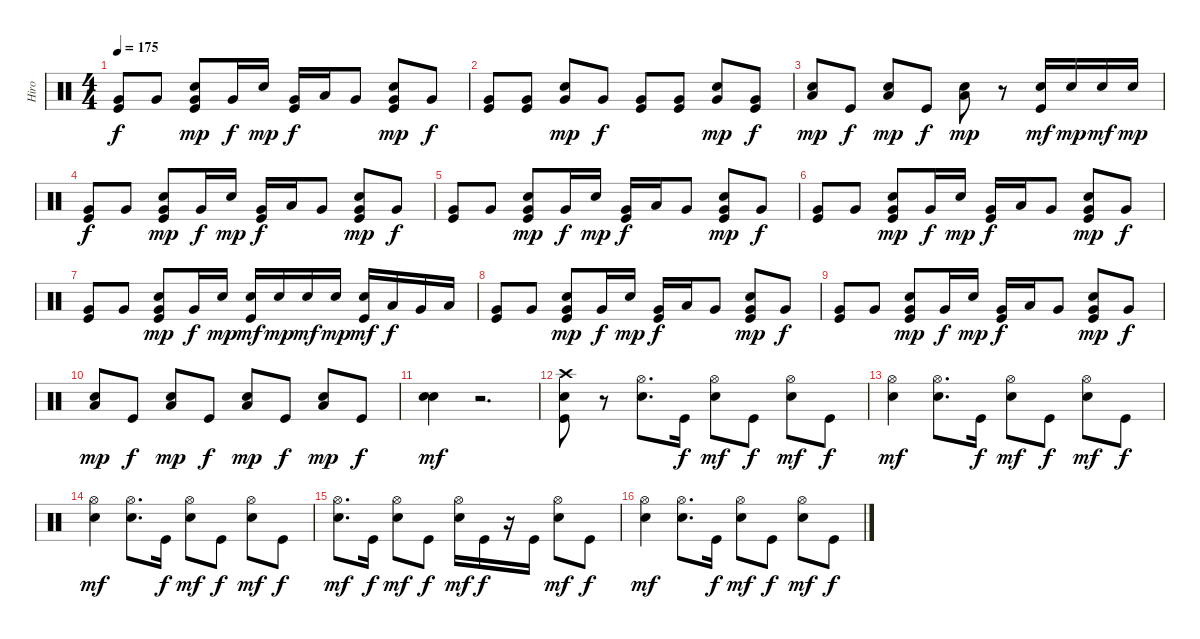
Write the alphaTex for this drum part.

\track ("Hiro" "Hiro") {instrument percussion}
\staff {score}
\articulation defaults
\ts (4 4)
\tempo 175
\clef neutral
\ks c
("Kick (hit)" "Very Low Tom (hit)").8{dy f} "Very Low Tom (hit)".8 ("Very Low Tom (hit)" "Electric Snare (hit)" "Kick (hit)").8{dy mp} "Very Low Tom (hit)".16{dy f} "Electric Snare (hit)".16{dy mp} ("Very Low Tom (hit)" "Kick (hit)").16{dy f} "Low Tom (hit)".16 "Very Low Tom (hit)".8 ("Very Low Tom (hit)" "Electric Snare (hit)" "Kick (hit)").8{dy mp} "Very Low Tom (hit)".8{dy f} |
("Kick (hit)" "Very Low Tom (hit)").8 ("Kick (hit)" "Very Low Tom (hit)").8 ("Very Low Tom (hit)" "Electric Snare (hit)").8{dy mp} "Very Low Tom (hit)".8{dy f} ("Kick (hit)" "Very Low Tom (hit)").8 ("Kick (hit)" "Very Low Tom (hit)").8 ("Very Low Tom (hit)" "Electric Snare (hit)").8{dy mp} ("Kick (hit)" "Very Low Tom (hit)").8{dy f} |
("Low Floor Tom (hit)" "Electric Snare (hit)").8{dy mp} "Kick (hit)".8{dy f} ("Low Floor Tom (hit)" "Electric Snare (hit)").8{dy mp} "Kick (hit)".8{dy f} ("Low Floor Tom (hit)" "Electric Snare (hit)").8{dy mp} r.8 ("Electric Snare (hit)" "Kick (hit)").16{dy mf} "Electric Snare (hit)".16{dy mp} "Electric Snare (hit)".16{dy mf} "Electric Snare (hit)".16{dy mp} |
("Kick (hit)" "Very Low Tom (hit)").8{dy f} "Very Low Tom (hit)".8 ("Very Low Tom (hit)" "Electric Snare (hit)" "Kick (hit)").8{dy mp} "Very Low Tom (hit)".16{dy f} "Electric Snare (hit)".16{dy mp} ("Very Low Tom (hit)" "Kick (hit)").16{dy f} "Low Tom (hit)".16 "Very Low Tom (hit)".8 ("Very Low Tom (hit)" "Electric Snare (hit)" "Kick (hit)").8{dy mp} "Very Low Tom (hit)".8{dy f} |
("Kick (hit)" "Very Low Tom (hit)").8 "Very Low Tom (hit)".8 ("Very Low Tom (hit)" "Electric Snare (hit)" "Kick (hit)").8{dy mp} "Very Low Tom (hit)".16{dy f} "Electric Snare (hit)".16{dy mp} ("Very Low Tom (hit)" "Kick (hit)").16{dy f} "Low Tom (hit)".16 "Very Low Tom (hit)".8 ("Very Low Tom (hit)" "Electric Snare (hit)" "Kick (hit)").8{dy mp} "Very Low Tom (hit)".8{dy f} |
("Kick (hit)" "Very Low Tom (hit)").8 "Very Low Tom (hit)".8 ("Very Low Tom (hit)" "Electric Snare (hit)" "Kick (hit)").8{dy mp} "Very Low Tom (hit)".16{dy f} "Electric Snare (hit)".16{dy mp} ("Very Low Tom (hit)" "Kick (hit)").16{dy f} "Low Tom (hit)".16 "Very Low Tom (hit)".8 ("Very Low Tom (hit)" "Electric Snare (hit)" "Kick (hit)").8{dy mp} "Very Low Tom (hit)".8{dy f} |
("Kick (hit)" "Very Low Tom (hit)").8 "Very Low Tom (hit)".8 ("Very Low Tom (hit)" "Electric Snare (hit)" "Kick (hit)").8{dy mp} "Very Low Tom (hit)".16{dy f} "Electric Snare (hit)".16{dy mp} ("Electric Snare (hit)" "Kick (hit)").16{dy mf} "Electric Snare (hit)".16{dy mp} "Electric Snare (hit)".16{dy mf} "Electric Snare (hit)".16{dy mp} ("Electric Snare (hit)" "Kick (hit)").16{dy mf} "Low Tom (hit)".16{dy f} "Very Low Tom (hit)".16 "Low Floor Tom (hit)".16 |
("Kick (hit)" "Very Low Tom (hit)").8 "Very Low Tom (hit)".8 ("Very Low Tom (hit)" "Electric Snare (hit)" "Kick (hit)").8{dy mp} "Very Low Tom (hit)".16{dy f} "Electric Snare (hit)".16{dy mp} ("Very Low Tom (hit)" "Kick (hit)").16{dy f} "Low Tom (hit)".16 "Very Low Tom (hit)".8 ("Very Low Tom (hit)" "Electric Snare (hit)" "Kick (hit)").8{dy mp} "Very Low Tom (hit)".8{dy f} |
("Kick (hit)" "Very Low Tom (hit)").8 "Very Low Tom (hit)".8 ("Very Low Tom (hit)" "Electric Snare (hit)" "Kick (hit)").8{dy mp} "Very Low Tom (hit)".16{dy f} "Electric Snare (hit)".16{dy mp} ("Very Low Tom (hit)" "Kick (hit)").16{dy f} "Low Tom (hit)".16 "Very Low Tom (hit)".8 ("Very Low Tom (hit)" "Electric Snare (hit)" "Kick (hit)").8{dy mp} "Very Low Tom (hit)".8{dy f} |
("Low Floor Tom (hit)" "Electric Snare (hit)").8{dy mp} "Kick (hit)".8{dy f} ("Low Floor Tom (hit)" "Electric Snare (hit)").8{dy mp} "Kick (hit)".8{dy f} ("Low Floor Tom (hit)" "Electric Snare (hit)").8{dy mp} "Kick (hit)".8{dy f} ("Low Floor Tom (hit)" "Electric Snare (hit)").8{dy mp} "Kick (hit)".8{dy f} |
("Electric Snare (hit)" "Electric Snare (hit)").4{dy mf} r.2{d} |
("Crash high (hit)" "Kick (hit)" "Electric Snare (hit)").8 r.8 ("Electric Snare (hit)" "Hi-Hat (open)").8{d} "Kick (hit)".16{dy f} ("Electric Snare (hit)" "Hi-Hat (open)").8{dy mf} "Kick (hit)".8{dy f} ("Electric Snare (hit)" "Hi-Hat (open)").8{dy mf} "Kick (hit)".8{dy f} |
("Electric Snare (hit)" "Hi-Hat (open)").4{dy mf} ("Electric Snare (hit)" "Hi-Hat (open)").8{d} "Kick (hit)".16{dy f} ("Electric Snare (hit)" "Hi-Hat (open)").8{dy mf} "Kick (hit)".8{dy f} ("Electric Snare (hit)" "Hi-Hat (open)").8{dy mf} "Kick (hit)".8{dy f} |
("Electric Snare (hit)" "Hi-Hat (open)").4{dy mf} ("Electric Snare (hit)" "Hi-Hat (open)").8{d} "Kick (hit)".16{dy f} ("Electric Snare (hit)" "Hi-Hat (open)").8{dy mf} "Kick (hit)".8{dy f} ("Electric Snare (hit)" "Hi-Hat (open)").8{dy mf} "Kick (hit)".8{dy f} |
("Electric Snare (hit)" "Hi-Hat (open)").8{d dy mf} "Kick (hit)".16{dy f} ("Electric Snare (hit)" "Hi-Hat (open)").8{dy mf} "Kick (hit)".8{dy f} ("Electric Snare (hit)" "Hi-Hat (open)").16{dy mf} "Kick (hit)".16{dy f} r.16 "Kick (hit)".16 ("Electric Snare (hit)" "Hi-Hat (open)").8{dy mf} "Kick (hit)".8{dy f} |
("Electric Snare (hit)" "Hi-Hat (open)").4{dy mf} ("Electric Snare (hit)" "Hi-Hat (open)").8{d} "Kick (hit)".16{dy f} ("Electric Snare (hit)" "Hi-Hat (open)").8{dy mf} "Kick (hit)".8{dy f} ("Electric Snare (hit)" "Hi-Hat (open)").8{dy mf} "Kick (hit)".8{dy f}
